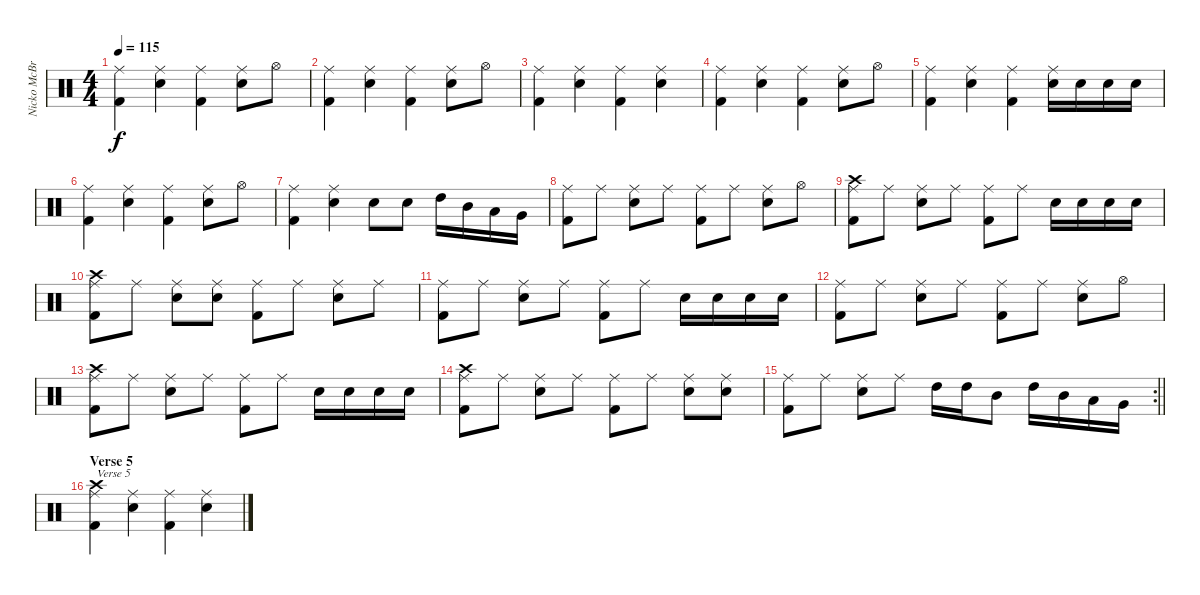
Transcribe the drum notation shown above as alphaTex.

\track ("Nicko McBrain" "Nicko McBr") {instrument percussion}
\staff {score}
\articulation defaults
\ts (4 4)
\tempo 115
\clef neutral
\ks c
("Ride (middle)" "Kick (hit) 2").4{dy f} ("Ride (middle)" "Snare (hit) 2").4 ("Ride (middle)" "Kick (hit) 2").4 ("Ride (middle)" "Snare (hit) 2").8 "Hi-Hat (open)".8 |
("Ride (middle)" "Kick (hit) 2").4 ("Ride (middle)" "Snare (hit) 2").4 ("Ride (middle)" "Kick (hit) 2").4 ("Ride (middle)" "Snare (hit) 2").8 "Hi-Hat (open)".8 |
("Ride (middle)" "Kick (hit) 2").4 ("Ride (middle)" "Snare (hit) 2").4 ("Ride (middle)" "Kick (hit) 2").4 ("Ride (middle)" "Snare (hit) 2").4 |
("Ride (middle)" "Kick (hit) 2").4 ("Ride (middle)" "Snare (hit) 2").4 ("Ride (middle)" "Kick (hit) 2").4 ("Ride (middle)" "Snare (hit) 2").8 "Hi-Hat (open)".8 |
("Ride (middle)" "Kick (hit) 2").4 ("Ride (middle)" "Snare (hit) 2").4 ("Ride (middle)" "Kick (hit) 2").4 ("Ride (middle)" "Snare (hit) 2").16 "Snare (hit) 2".16 "Snare (hit) 2".16 "Snare (hit) 2".16 |
("Ride (middle)" "Kick (hit) 2").4 ("Ride (middle)" "Snare (hit) 2").4 ("Ride (middle)" "Kick (hit) 2").4 ("Ride (middle)" "Snare (hit) 2").8 "Hi-Hat (open)".8 |
("Ride (middle)" "Kick (hit) 2").4 ("Ride (middle)" "Snare (hit) 2").4 "Snare (hit) 2".8 "Snare (hit) 2".8 "High Tom (hit)".16 "Mid Tom (hit)".16 "Low Tom (hit)".16 "Very Low Tom (hit)".16 |
("Ride (middle)" "Kick (hit) 2").8 "Ride (middle)".8 ("Ride (middle)" "Snare (hit) 2").8 "Ride (middle)".8 ("Ride (middle)" "Kick (hit) 2").8 "Ride (middle)".8 ("Ride (middle)" "Snare (hit) 2").8 "Hi-Hat (open)".8 |
("Ride (middle)" "Kick (hit) 2" "Crash high (hit)").8 "Ride (middle)".8 ("Ride (middle)" "Snare (hit) 2").8 "Ride (middle)".8 ("Ride (middle)" "Kick (hit) 2").8 "Ride (middle)".8 "Snare (hit) 2".16 "Snare (hit) 2".16 "Snare (hit) 2".16 "Snare (hit) 2".16 |
("Ride (middle)" "Kick (hit) 2" "Crash high (hit)").8 "Ride (middle)".8 ("Ride (middle)" "Snare (hit) 2").8 ("Ride (middle)" "Snare (hit) 2").8 ("Ride (middle)" "Kick (hit) 2").8 "Ride (middle)".8 ("Ride (middle)" "Snare (hit) 2").8 "Ride (middle)".8 |
("Ride (middle)" "Kick (hit) 2").8 "Ride (middle)".8 ("Ride (middle)" "Snare (hit) 2").8 "Ride (middle)".8 ("Ride (middle)" "Kick (hit) 2").8 "Ride (middle)".8 "Snare (hit) 2".16 "Snare (hit) 2".16 "Snare (hit) 2".16 "Snare (hit) 2".16 |
("Ride (middle)" "Kick (hit) 2").8 "Ride (middle)".8 ("Ride (middle)" "Snare (hit) 2").8 "Ride (middle)".8 ("Ride (middle)" "Kick (hit) 2").8 "Ride (middle)".8 ("Ride (middle)" "Snare (hit) 2").8 "Hi-Hat (open)".8 |
("Ride (middle)" "Kick (hit) 2" "Crash high (hit)").8 "Ride (middle)".8 ("Ride (middle)" "Snare (hit) 2").8 "Ride (middle)".8 ("Ride (middle)" "Kick (hit) 2").8 "Ride (middle)".8 "Snare (hit) 2".16 "Snare (hit) 2".16 "Snare (hit) 2".16 "Snare (hit) 2".16 |
("Ride (middle)" "Kick (hit) 2" "Crash high (hit)").8 "Ride (middle)".8 ("Ride (middle)" "Snare (hit) 2").8 "Ride (middle)".8 ("Ride (middle)" "Kick (hit) 2").8 "Ride (middle)".8 ("Ride (middle)" "Snare (hit) 2").8 ("Ride (middle)" "Snare (hit) 2").8 |
\rc 2
\barLineRight lightlight
("Ride (middle)" "Kick (hit) 2").8 "Ride (middle)".8 ("Ride (middle)" "Snare (hit) 2").8 "Ride (middle)".8 "High Tom (hit)".16 "High Tom (hit)".16 "Mid Tom (hit)".8 "High Tom (hit)".16 "Mid Tom (hit)".16 "Low Tom (hit)".16 "Very Low Tom (hit)".16 |
\section ("" "Verse 5")
("Ride (middle)" "Kick (hit) 2" "Crash high (hit)").4{txt "Verse 5"} ("Ride (middle)" "Snare (hit) 2").4 ("Ride (middle)" "Kick (hit) 2").4 ("Ride (middle)" "Snare (hit) 2").4
